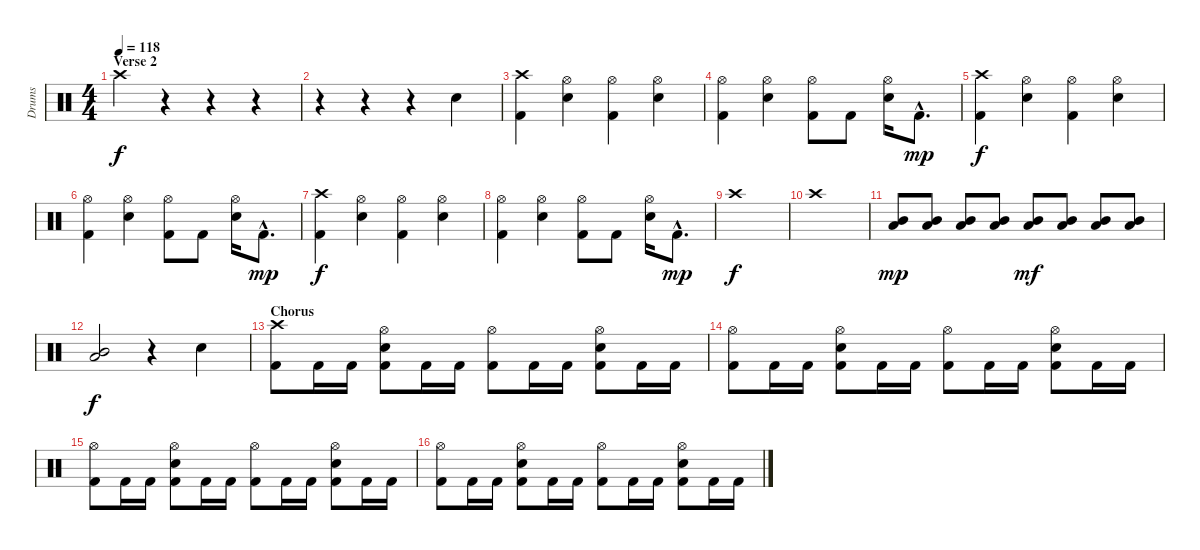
\track ("Drums" "Drums") {instrument percussion}
\staff {score}
\articulation defaults
\ts (4 4)
\section ("" "Verse 2")
\tempo 118
\clef neutral
\ks c "Crash high (hit)".4{dy f}
r.4 r.4 r.4 |
r.4 r.4 r.4 "Snare (hit) 2".4 |
("Crash high (hit)" "Kick (hit) 2").4 ("Hi-Hat (open)" "Snare (hit) 2").4 ("Hi-Hat (open)" "Kick (hit) 2").4 ("Hi-Hat (open)" "Snare (hit) 2").4 |
("Hi-Hat (open)" "Kick (hit) 2").4 ("Hi-Hat (open)" "Snare (hit) 2").4 ("Hi-Hat (open)" "Kick (hit) 2").8 "Kick (hit) 2".8 ("Hi-Hat (open)" "Snare (hit) 2").16 "Kick (hit) 2"{hac}.8{d dy mp} |
("Crash high (hit)" "Kick (hit) 2").4{dy f} ("Hi-Hat (open)" "Snare (hit) 2").4 ("Hi-Hat (open)" "Kick (hit) 2").4 ("Hi-Hat (open)" "Snare (hit) 2").4 |
("Hi-Hat (open)" "Kick (hit) 2").4 ("Hi-Hat (open)" "Snare (hit) 2").4 ("Hi-Hat (open)" "Kick (hit) 2").8 "Kick (hit) 2".8 ("Hi-Hat (open)" "Snare (hit) 2").16 "Kick (hit) 2"{hac}.8{d dy mp} |
("Crash high (hit)" "Kick (hit) 2").4{dy f} ("Hi-Hat (open)" "Snare (hit) 2").4 ("Hi-Hat (open)" "Kick (hit) 2").4 ("Hi-Hat (open)" "Snare (hit) 2").4 |
("Hi-Hat (open)" "Kick (hit) 2").4 ("Hi-Hat (open)" "Snare (hit) 2").4 ("Hi-Hat (open)" "Kick (hit) 2").8 "Kick (hit) 2".8 ("Hi-Hat (open)" "Snare (hit) 2").16 "Kick (hit) 2"{hac}.8{d dy mp} |
"Crash high (hit)".1{dy f} |
"Crash high (hit)".1 |
("Mid Tom (hit)" "Low Tom (hit)").8{dy mp} ("Mid Tom (hit)" "Low Tom (hit)").8 ("Mid Tom (hit)" "Low Tom (hit)").8 ("Mid Tom (hit)" "Low Tom (hit)").8 ("Mid Tom (hit)" "Low Tom (hit)").8{dy mf} ("Mid Tom (hit)" "Low Tom (hit)").8 ("Mid Tom (hit)" "Low Tom (hit)").8 ("Mid Tom (hit)" "Low Tom (hit)").8 |
("Mid Tom (hit)" "Low Tom (hit)").2{dy f} r.4 "Snare (hit) 2".4 |
\section ("" "Chorus")
("Crash high (hit)" "Kick (hit) 2").8 "Kick (hit) 2".16 "Kick (hit) 2".16 ("Hi-Hat (open)" "Snare (hit) 2" "Kick (hit) 2").8 "Kick (hit) 2".16 "Kick (hit) 2".16 ("Hi-Hat (open)" "Kick (hit) 2").8 "Kick (hit) 2".16 "Kick (hit) 2".16 ("Hi-Hat (open)" "Snare (hit) 2" "Kick (hit) 2").8 "Kick (hit) 2".16 "Kick (hit) 2".16 |
("Hi-Hat (open)" "Kick (hit) 2").8 "Kick (hit) 2".16 "Kick (hit) 2".16 ("Hi-Hat (open)" "Snare (hit) 2" "Kick (hit) 2").8 "Kick (hit) 2".16 "Kick (hit) 2".16 ("Hi-Hat (open)" "Kick (hit) 2").8 "Kick (hit) 2".16 "Kick (hit) 2".16 ("Hi-Hat (open)" "Snare (hit) 2" "Kick (hit) 2").8 "Kick (hit) 2".16 "Kick (hit) 2".16 |
("Hi-Hat (open)" "Kick (hit) 2").8 "Kick (hit) 2".16 "Kick (hit) 2".16 ("Hi-Hat (open)" "Snare (hit) 2" "Kick (hit) 2").8 "Kick (hit) 2".16 "Kick (hit) 2".16 ("Hi-Hat (open)" "Kick (hit) 2").8 "Kick (hit) 2".16 "Kick (hit) 2".16 ("Hi-Hat (open)" "Snare (hit) 2" "Kick (hit) 2").8 "Kick (hit) 2".16 "Kick (hit) 2".16 |
("Hi-Hat (open)" "Kick (hit) 2").8 "Kick (hit) 2".16 "Kick (hit) 2".16 ("Hi-Hat (open)" "Snare (hit) 2" "Kick (hit) 2").8 "Kick (hit) 2".16 "Kick (hit) 2".16 ("Hi-Hat (open)" "Kick (hit) 2").8 "Kick (hit) 2".16 "Kick (hit) 2".16 ("Hi-Hat (open)" "Snare (hit) 2" "Kick (hit) 2").8 "Kick (hit) 2".16 "Kick (hit) 2".16
